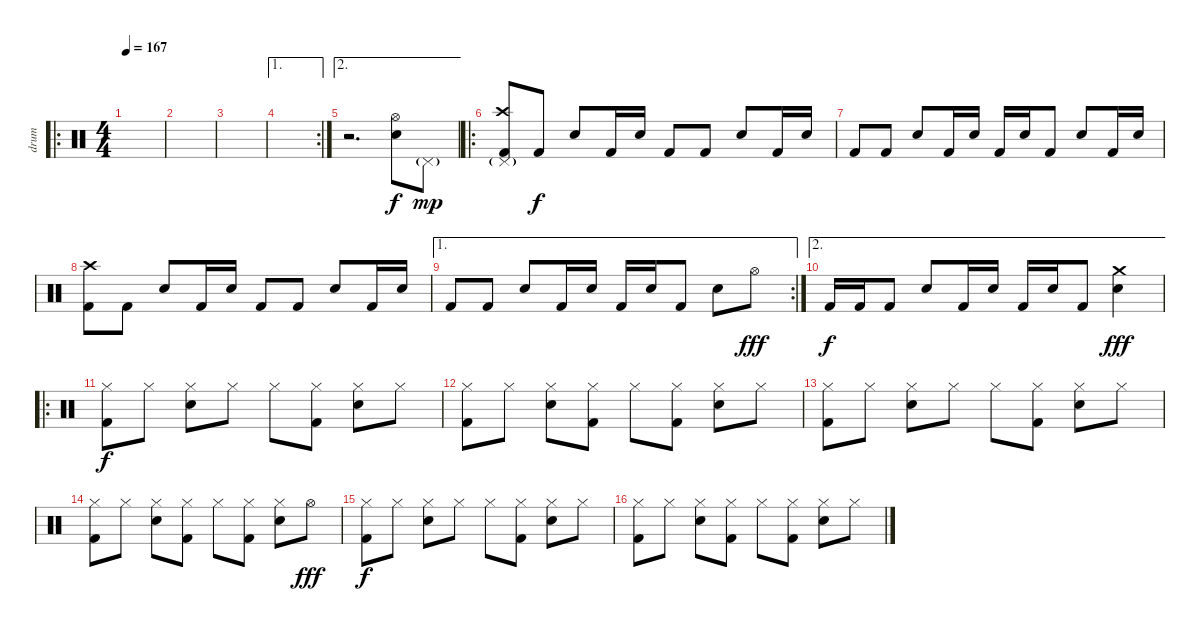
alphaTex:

\track ("drum" "drum") {instrument percussion}
\staff {score}
\articulation defaults
\ro
\ts (4 4)
\tempo 167
\clef neutral
\ks c
|
|
|
\ae 1
\rc 2
|
\ae 2
r.2{d} ("Hi-Hat (open)" "Snare (hit) 2").8 "Pedal Hi-Hat (hit)"{g}.8{dy mp} |
\ro
("Crash high (hit)" "Pedal Hi-Hat (hit)"{g} "Kick (hit) 2").8 "Kick (hit) 2".8{dy f} "Snare (hit) 2".8 "Kick (hit) 2".16 "Snare (hit) 2".16 "Kick (hit) 2".8 "Kick (hit) 2".8 "Snare (hit) 2".8 "Kick (hit) 2".16 "Snare (hit) 2".16 |
"Kick (hit) 2".8 "Kick (hit) 2".8 "Snare (hit) 2".8 "Kick (hit) 2".16 "Snare (hit) 2".16 "Kick (hit) 2".16 "Snare (hit) 2".16 "Kick (hit) 2".8 "Snare (hit) 2".8 "Kick (hit) 2".16 "Snare (hit) 2".16 |
("Crash high (hit)" "Kick (hit) 2").8 "Kick (hit) 2".8 "Snare (hit) 2".8 "Kick (hit) 2".16 "Snare (hit) 2".16 "Kick (hit) 2".8 "Kick (hit) 2".8 "Snare (hit) 2".8 "Kick (hit) 2".16 "Snare (hit) 2".16 |
\ae 1
\rc 2 "Kick (hit) 2".8 "Kick (hit) 2".8 "Snare (hit) 2".8 "Kick (hit) 2".16 "Snare (hit) 2".16 "Kick (hit) 2".16 "Snare (hit) 2".16 "Kick (hit) 2".8 "Snare (hit) 2".8 "Hi-Hat (open)".8{dy fff}
|
\ae 2 "Kick (hit) 2".16{dy f} "Kick (hit) 2".16 "Kick (hit) 2".8 "Snare (hit) 2".8 "Kick (hit) 2".16 "Snare (hit) 2".16 "Kick (hit) 2".16 "Snare (hit) 2".16 "Kick (hit) 2".8
("Crash medium (hit)" "Snare (hit) 2").4{dy fff} |
\ro
("Hi-Hat (closed)" "Kick (hit) 2").8{dy f} "Hi-Hat (closed)".8 ("Hi-Hat (closed)" "Snare (hit) 2").8 "Hi-Hat (closed)".8 "Hi-Hat (closed)".8 ("Hi-Hat (closed)" "Kick (hit) 2").8 ("Hi-Hat (closed)" "Snare (hit) 2").8 "Hi-Hat (closed)".8 |
("Hi-Hat (closed)" "Kick (hit) 2").8 "Hi-Hat (closed)".8 ("Hi-Hat (closed)" "Snare (hit) 2").8 ("Hi-Hat (closed)" "Kick (hit) 2").8 "Hi-Hat (closed)".8 ("Hi-Hat (closed)" "Kick (hit) 2").8 ("Hi-Hat (closed)" "Snare (hit) 2").8 "Hi-Hat (closed)".8 |
("Hi-Hat (closed)" "Kick (hit) 2").8 "Hi-Hat (closed)".8 ("Hi-Hat (closed)" "Snare (hit) 2").8 "Hi-Hat (closed)".8 "Hi-Hat (closed)".8 ("Hi-Hat (closed)" "Kick (hit) 2").8 ("Hi-Hat (closed)" "Snare (hit) 2").8 "Hi-Hat (closed)".8 |
("Hi-Hat (closed)" "Kick (hit) 2").8 "Hi-Hat (closed)".8 ("Hi-Hat (closed)" "Snare (hit) 2").8 ("Hi-Hat (closed)" "Kick (hit) 2").8 "Hi-Hat (closed)".8 ("Hi-Hat (closed)" "Kick (hit) 2").8 ("Hi-Hat (closed)" "Snare (hit) 2").8 "Hi-Hat (open)".8{dy fff} |
("Hi-Hat (closed)" "Kick (hit) 2").8{dy f} "Hi-Hat (closed)".8 ("Hi-Hat (closed)" "Snare (hit) 2").8 "Hi-Hat (closed)".8 "Hi-Hat (closed)".8 ("Hi-Hat (closed)" "Kick (hit) 2").8 ("Hi-Hat (closed)" "Snare (hit) 2").8 "Hi-Hat (closed)".8 |
("Hi-Hat (closed)" "Kick (hit) 2").8 "Hi-Hat (closed)".8 ("Hi-Hat (closed)" "Snare (hit) 2").8 ("Hi-Hat (closed)" "Kick (hit) 2").8 "Hi-Hat (closed)".8 ("Hi-Hat (closed)" "Kick (hit) 2").8 ("Hi-Hat (closed)" "Snare (hit) 2").8 "Hi-Hat (closed)".8
